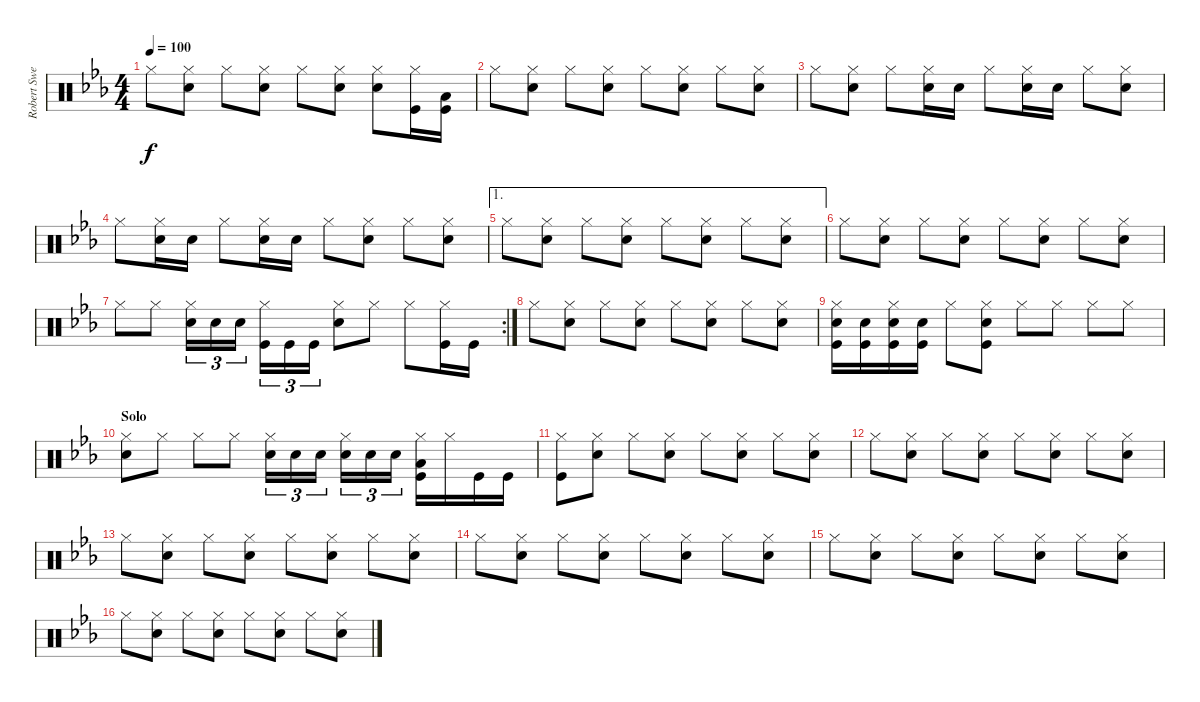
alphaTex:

\track ("Robert Sweet" "Robert Swe") {instrument percussion}
\staff {score}
\articulation defaults
\ts (4 4)
\tempo 100
\clef neutral
\ks cminor "Hi-Hat (closed)".8{dy f}
("Hi-Hat (closed)" "Snare (hit) 2").8 "Hi-Hat (closed)".8 ("Hi-Hat (closed)" "Snare (hit) 2").8 "Hi-Hat (closed)".8 ("Hi-Hat (closed)" "Snare (hit) 2").8 ("Hi-Hat (closed)" "Snare (hit) 2").8 ("Hi-Hat (closed)" "Kick (hit)").16 ("Kick (hit)" "Low Floor Tom (hit)").16 |
"Hi-Hat (closed)".8 ("Hi-Hat (closed)" "Snare (hit) 2").8 "Hi-Hat (closed)".8 ("Hi-Hat (closed)" "Snare (hit) 2").8 "Hi-Hat (closed)".8 ("Hi-Hat (closed)" "Snare (hit) 2").8 "Hi-Hat (closed)".8 ("Hi-Hat (closed)" "Snare (hit) 2").8 |
"Hi-Hat (closed)".8 ("Hi-Hat (closed)" "Snare (hit) 2").8 "Hi-Hat (closed)".8 ("Hi-Hat (closed)" "Snare (hit) 2").16 "Snare (hit) 2".16 "Hi-Hat (closed)".8 ("Hi-Hat (closed)" "Snare (hit) 2").16 "Snare (hit) 2".16 "Hi-Hat (closed)".8 ("Hi-Hat (closed)" "Snare (hit) 2").8 |
"Hi-Hat (closed)".8 ("Hi-Hat (closed)" "Snare (hit) 2").16 "Snare (hit) 2".16 "Hi-Hat (closed)".8 ("Hi-Hat (closed)" "Snare (hit) 2").16 "Snare (hit) 2".16 "Hi-Hat (closed)".8 ("Hi-Hat (closed)" "Snare (hit) 2").8 "Hi-Hat (closed)".8 ("Hi-Hat (closed)" "Snare (hit) 2").8 |
\ae 1 "Hi-Hat (closed)".8
("Hi-Hat (closed)" "Snare (hit) 2").8 "Hi-Hat (closed)".8 ("Hi-Hat (closed)" "Snare (hit) 2").8 "Hi-Hat (closed)".8 ("Hi-Hat (closed)" "Snare (hit) 2").8 "Hi-Hat (closed)".8 ("Hi-Hat (closed)" "Snare (hit) 2").8 |
"Hi-Hat (closed)".8 ("Hi-Hat (closed)" "Snare (hit) 2").8 "Hi-Hat (closed)".8 ("Hi-Hat (closed)" "Snare (hit) 2").8 "Hi-Hat (closed)".8 ("Hi-Hat (closed)" "Snare (hit) 2").8 "Hi-Hat (closed)".8 ("Hi-Hat (closed)" "Snare (hit) 2").8 |
\rc 2 "Hi-Hat (closed)".8 "Hi-Hat (closed)".8
("Hi-Hat (closed)" "Snare (hit) 2").16{tu (3 2)} "Snare (hit) 2".16{tu (3 2)} "Snare (hit) 2".16{tu (3 2)} ("Hi-Hat (closed)" "Kick (hit)").16{tu (3 2)} "Kick (hit)".16{tu (3 2)} "Kick (hit)".16{tu (3 2)} ("Hi-Hat (closed)" "Snare (hit) 2").8 "Hi-Hat (closed)".8 "Hi-Hat (closed)".8 ("Hi-Hat (closed)" "Kick (hit)").16 "Kick (hit)".16 |
"Hi-Hat (closed)".8 ("Hi-Hat (closed)" "Snare (hit) 2").8 "Hi-Hat (closed)".8 ("Hi-Hat (closed)" "Snare (hit) 2").8 "Hi-Hat (closed)".8 ("Hi-Hat (closed)" "Snare (hit) 2").8 "Hi-Hat (closed)".8 ("Hi-Hat (closed)" "Snare (hit) 2").8 |
("Hi-Hat (closed)" "Snare (hit) 2" "Kick (hit)").16 ("Snare (hit) 2" "Kick (hit)").16 ("Hi-Hat (closed)" "Snare (hit) 2" "Kick (hit)").16 ("Snare (hit) 2" "Kick (hit)").16 "Hi-Hat (closed)".8 ("Hi-Hat (closed)" "Snare (hit) 2" "Kick (hit)").8 "Hi-Hat (closed)".8 "Hi-Hat (closed)".8 "Hi-Hat (closed)".8 "Hi-Hat (closed)".8 |
\section ("" "Solo")
("Hi-Hat (closed)" "Snare (hit) 2").8 "Hi-Hat (closed)".8 "Hi-Hat (closed)".8 "Hi-Hat (closed)".8 ("Hi-Hat (closed)" "Snare (hit) 2").16{tu (3 2)} "Snare (hit) 2".16{tu (3 2)} "Snare (hit) 2".16{tu (3 2)} ("Hi-Hat (closed)" "Snare (hit) 2").16{tu (3 2)} "Snare (hit) 2".16{tu (3 2)} "Snare (hit) 2".16{tu (3 2)} ("Hi-Hat (closed)" "Kick (hit)" "Low Floor Tom (hit)").16 "Hi-Hat (closed)".16 "Kick (hit)".16 "Kick (hit)".16 |
("Hi-Hat (closed)" "Kick (hit)").8 ("Hi-Hat (closed)" "Snare (hit) 2").8 "Hi-Hat (closed)".8 ("Hi-Hat (closed)" "Snare (hit) 2").8 "Hi-Hat (closed)".8 ("Hi-Hat (closed)" "Snare (hit) 2").8 "Hi-Hat (closed)".8 ("Hi-Hat (closed)" "Snare (hit) 2").8 |
"Hi-Hat (closed)".8 ("Hi-Hat (closed)" "Snare (hit) 2").8 "Hi-Hat (closed)".8 ("Hi-Hat (closed)" "Snare (hit) 2").8 "Hi-Hat (closed)".8 ("Hi-Hat (closed)" "Snare (hit) 2").8 "Hi-Hat (closed)".8 ("Hi-Hat (closed)" "Snare (hit) 2").8 |
"Hi-Hat (closed)".8 ("Hi-Hat (closed)" "Snare (hit) 2").8 "Hi-Hat (closed)".8 ("Hi-Hat (closed)" "Snare (hit) 2").8 "Hi-Hat (closed)".8 ("Hi-Hat (closed)" "Snare (hit) 2").8 "Hi-Hat (closed)".8 ("Hi-Hat (closed)" "Snare (hit) 2").8 |
"Hi-Hat (closed)".8 ("Hi-Hat (closed)" "Snare (hit) 2").8 "Hi-Hat (closed)".8 ("Hi-Hat (closed)" "Snare (hit) 2").8 "Hi-Hat (closed)".8 ("Hi-Hat (closed)" "Snare (hit) 2").8 "Hi-Hat (closed)".8 ("Hi-Hat (closed)" "Snare (hit) 2").8 |
"Hi-Hat (closed)".8 ("Hi-Hat (closed)" "Snare (hit) 2").8 "Hi-Hat (closed)".8 ("Hi-Hat (closed)" "Snare (hit) 2").8 "Hi-Hat (closed)".8 ("Hi-Hat (closed)" "Snare (hit) 2").8 "Hi-Hat (closed)".8 ("Hi-Hat (closed)" "Snare (hit) 2").8 |
"Hi-Hat (closed)".8 ("Hi-Hat (closed)" "Snare (hit) 2").8 "Hi-Hat (closed)".8 ("Hi-Hat (closed)" "Snare (hit) 2").8 "Hi-Hat (closed)".8 ("Hi-Hat (closed)" "Snare (hit) 2").8 "Hi-Hat (closed)".8 ("Hi-Hat (closed)" "Snare (hit) 2").8
